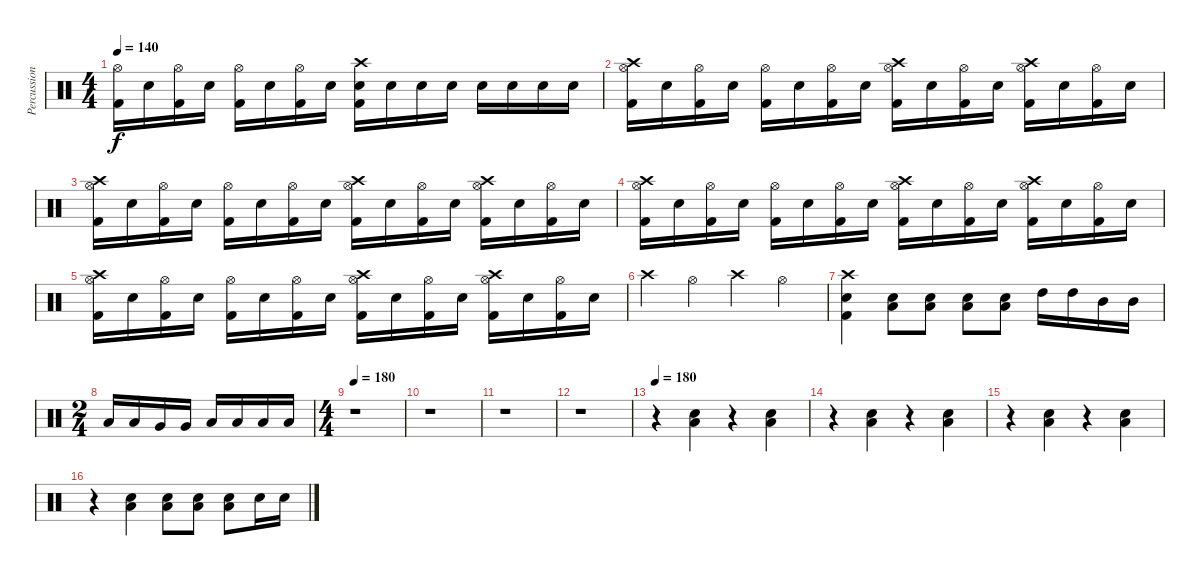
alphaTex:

\track ("Percussions" "Percussion") {instrument percussion}
\staff {score}
\articulation defaults
\ts (4 4)
\tempo 140
\clef neutral
\ks c
("Kick (hit) 2" "Hi-Hat (open)").16{dy f} "Electric Snare (hit)".16 ("Kick (hit) 2" "Hi-Hat (open)").16 "Electric Snare (hit)".16 ("Kick (hit) 2" "Hi-Hat (open)").16 "Electric Snare (hit)".16 ("Kick (hit) 2" "Hi-Hat (open)").16 "Electric Snare (hit)".16 ("Crash high (hit)" "Kick (hit) 2" "Electric Snare (hit)").16 "Electric Snare (hit)".16 "Electric Snare (hit)".16 "Electric Snare (hit)".16 "Electric Snare (hit)".16 "Electric Snare (hit)".16 "Electric Snare (hit)".16 "Electric Snare (hit)".16 |
("Crash high (hit)" "Kick (hit) 2" "Hi-Hat (open)").16 "Electric Snare (hit)".16 ("Kick (hit) 2" "Hi-Hat (open)").16 "Electric Snare (hit)".16 ("Kick (hit) 2" "Hi-Hat (open)").16 "Electric Snare (hit)".16 ("Kick (hit) 2" "Hi-Hat (open)").16 "Electric Snare (hit)".16 ("Crash high (hit)" "Kick (hit) 2" "Hi-Hat (open)").16 "Electric Snare (hit)".16 ("Kick (hit) 2" "Hi-Hat (open)").16 "Electric Snare (hit)".16 ("Crash high (hit)" "Kick (hit) 2" "Hi-Hat (open)").16 "Electric Snare (hit)".16 ("Kick (hit) 2" "Hi-Hat (open)").16 "Electric Snare (hit)".16 |
("Crash high (hit)" "Kick (hit) 2" "Hi-Hat (open)").16 "Electric Snare (hit)".16 ("Kick (hit) 2" "Hi-Hat (open)").16 "Electric Snare (hit)".16 ("Kick (hit) 2" "Hi-Hat (open)").16 "Electric Snare (hit)".16 ("Kick (hit) 2" "Hi-Hat (open)").16 "Electric Snare (hit)".16 ("Crash high (hit)" "Kick (hit) 2" "Hi-Hat (open)").16 "Electric Snare (hit)".16 ("Kick (hit) 2" "Hi-Hat (open)").16 "Electric Snare (hit)".16 ("Crash high (hit)" "Kick (hit) 2" "Hi-Hat (open)").16 "Electric Snare (hit)".16 ("Kick (hit) 2" "Hi-Hat (open)").16 "Electric Snare (hit)".16 |
("Crash high (hit)" "Kick (hit) 2" "Hi-Hat (open)").16 "Electric Snare (hit)".16 ("Kick (hit) 2" "Hi-Hat (open)").16 "Electric Snare (hit)".16 ("Kick (hit) 2" "Hi-Hat (open)").16 "Electric Snare (hit)".16 ("Kick (hit) 2" "Hi-Hat (open)").16 "Electric Snare (hit)".16 ("Crash high (hit)" "Kick (hit) 2" "Hi-Hat (open)").16 "Electric Snare (hit)".16 ("Kick (hit) 2" "Hi-Hat (open)").16 "Electric Snare (hit)".16 ("Crash high (hit)" "Kick (hit) 2" "Hi-Hat (open)").16 "Electric Snare (hit)".16 ("Kick (hit) 2" "Hi-Hat (open)").16 "Electric Snare (hit)".16 |
("Crash high (hit)" "Kick (hit) 2" "Hi-Hat (open)").16 "Electric Snare (hit)".16 ("Kick (hit) 2" "Hi-Hat (open)").16 "Electric Snare (hit)".16 ("Kick (hit) 2" "Hi-Hat (open)").16 "Electric Snare (hit)".16 ("Kick (hit) 2" "Hi-Hat (open)").16 "Electric Snare (hit)".16 ("Crash high (hit)" "Kick (hit) 2" "Hi-Hat (open)").16 "Electric Snare (hit)".16 ("Kick (hit) 2" "Hi-Hat (open)").16 "Electric Snare (hit)".16 ("Crash high (hit)" "Kick (hit) 2" "Hi-Hat (open)").16 "Electric Snare (hit)".16 ("Kick (hit) 2" "Hi-Hat (open)").16 "Electric Snare (hit)".16 |
"Crash high (hit)".4 "Hi-Hat (open)".4 "Crash high (hit)".4 "Hi-Hat (open)".4 |
("Crash high (hit)" "Kick (hit) 2" "Electric Snare (hit)").4 ("Low Floor Tom (hit)" "Electric Snare (hit)").8 ("Low Floor Tom (hit)" "Electric Snare (hit)").8 ("Low Floor Tom (hit)" "Electric Snare (hit)").8 ("Low Floor Tom (hit)" "Electric Snare (hit)").8 "High Tom (hit)".16 "High Tom (hit)".16 "Mid Tom (hit)".16 "Mid Tom (hit)".16 |
\ts (2 4)
"Low Tom (hit)".16 "Low Tom (hit)".16 "Very Low Tom (hit)".16 "Very Low Tom (hit)".16 "Low Floor Tom (hit)".16 "Low Floor Tom (hit)".16 "Low Floor Tom (hit)".16 "Low Floor Tom (hit)".16 |
\ts (4 4)
\tempo 180
r.1 |
r.1 |
r.1 |
r.1 |
\tempo 180
r.4 ("Low Floor Tom (hit)" "Electric Snare (hit)").4 r.4 ("Low Floor Tom (hit)" "Electric Snare (hit)").4 |
r.4 ("Low Floor Tom (hit)" "Electric Snare (hit)").4 r.4 ("Low Floor Tom (hit)" "Electric Snare (hit)").4 |
r.4 ("Low Floor Tom (hit)" "Electric Snare (hit)").4 r.4 ("Low Floor Tom (hit)" "Electric Snare (hit)").4 |
r.4 ("Low Floor Tom (hit)" "Electric Snare (hit)").4 ("Low Floor Tom (hit)" "Electric Snare (hit)").8 ("Low Floor Tom (hit)" "Electric Snare (hit)").8 ("Low Floor Tom (hit)" "Electric Snare (hit)").8 "Electric Snare (hit)".16 "Electric Snare (hit)".16
